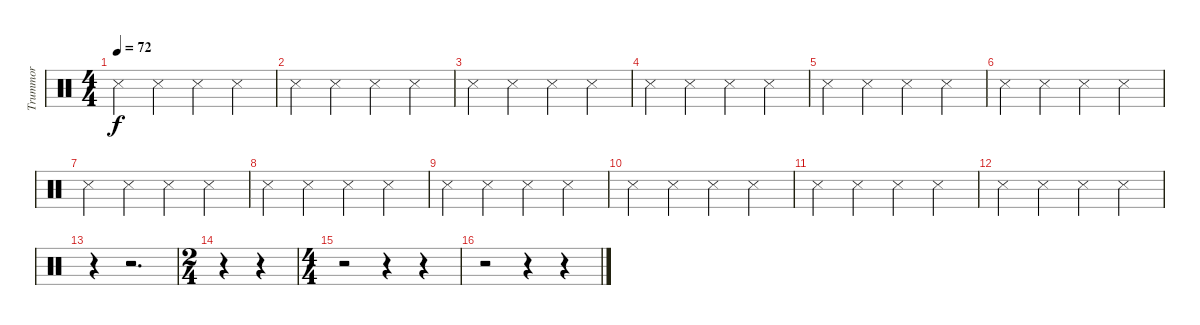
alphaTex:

\track ("Trummor" "Trummor") {instrument percussion}
\staff {score}
\articulation defaults
\ts (4 4)
\tempo 72
\clef neutral
\ks c "Metronome (hit)".4{dy f} "Metronome (hit)".4 "Metronome (hit)".4 "Metronome (hit)".4
|
"Metronome (hit)".4 "Metronome (hit)".4 "Metronome (hit)".4 "Metronome (hit)".4 |
"Metronome (hit)".4 "Metronome (hit)".4 "Metronome (hit)".4 "Metronome (hit)".4 |
"Metronome (hit)".4 "Metronome (hit)".4 "Metronome (hit)".4 "Metronome (hit)".4 |
"Metronome (hit)".4 "Metronome (hit)".4 "Metronome (hit)".4 "Metronome (hit)".4 |
"Metronome (hit)".4 "Metronome (hit)".4 "Metronome (hit)".4 "Metronome (hit)".4 |
"Metronome (hit)".4 "Metronome (hit)".4 "Metronome (hit)".4 "Metronome (hit)".4 |
"Metronome (hit)".4 "Metronome (hit)".4 "Metronome (hit)".4 "Metronome (hit)".4 |
"Metronome (hit)".4 "Metronome (hit)".4 "Metronome (hit)".4 "Metronome (hit)".4 |
"Metronome (hit)".4 "Metronome (hit)".4 "Metronome (hit)".4 "Metronome (hit)".4 |
"Metronome (hit)".4 "Metronome (hit)".4 "Metronome (hit)".4 "Metronome (hit)".4 |
"Metronome (hit)".4 "Metronome (hit)".4 "Metronome (hit)".4 "Metronome (hit)".4 |
r.4 r.2{d} |
\ts (2 4)
r.4 r.4 |
\ts (4 4)
r.2 r.4 r.4 |
r.2 r.4 r.4
